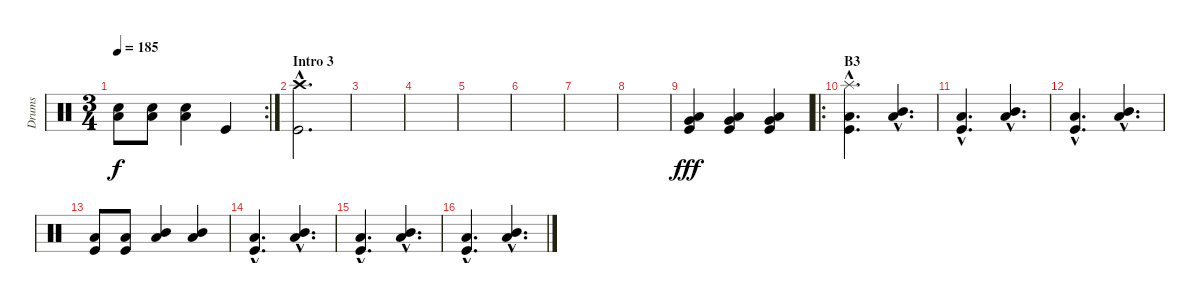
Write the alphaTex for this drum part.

\track ("Drums" "Drums") {instrument percussion}
\staff {score}
\articulation defaults
\rc 2
\ts (3 4)
\tempo 185
\clef neutral
\ks c
("Low Floor Tom (hit)" "Snare (hit) 2").8{dy f} ("Low Floor Tom (hit)" "Snare (hit) 2").8 ("Low Floor Tom (hit)" "Snare (hit) 2").4 "Kick (hit)".4 |
\section ("" "Intro 3")
("Crash high (hit)"{hac} "Kick (hit)"{hac}).2{d} |
|
|
|
|
|
|
("Very Low Tom (hit)" "Low Floor Tom (hit)" "Kick (hit)").4{dy fff} ("Very Low Tom (hit)" "Low Floor Tom (hit)" "Kick (hit)").4 ("Very Low Tom (hit)" "Low Floor Tom (hit)" "Kick (hit)").4 |
\ro
\section ("" "B3")
("Splash (hit)"{hac} "Low Floor Tom (hit)"{hac} "Kick (hit)"{hac}).4{d} ("Mid Tom (hit)"{hac} "Low Floor Tom (hit)"{hac}).4{d} |
("Low Floor Tom (hit)"{hac} "Kick (hit)"{hac}).4{d} ("Mid Tom (hit)"{hac} "Low Floor Tom (hit)"{hac}).4{d} |
("Low Floor Tom (hit)"{hac} "Kick (hit)"{hac}).4{d} ("Mid Tom (hit)"{hac} "Low Floor Tom (hit)"{hac}).4{d} |
("Low Floor Tom (hit)" "Kick (hit)").8 ("Low Floor Tom (hit)" "Kick (hit)").8 ("Mid Tom (hit)" "Low Floor Tom (hit)").4 ("Mid Tom (hit)" "Low Floor Tom (hit)").4 |
("Low Floor Tom (hit)"{hac} "Kick (hit)"{hac}).4{d} ("Mid Tom (hit)"{hac} "Low Floor Tom (hit)"{hac}).4{d} |
("Low Floor Tom (hit)"{hac} "Kick (hit)"{hac}).4{d} ("Mid Tom (hit)"{hac} "Low Floor Tom (hit)"{hac}).4{d} |
("Low Floor Tom (hit)"{hac} "Kick (hit)"{hac}).4{d} ("Mid Tom (hit)"{hac} "Low Floor Tom (hit)"{hac}).4{d}
